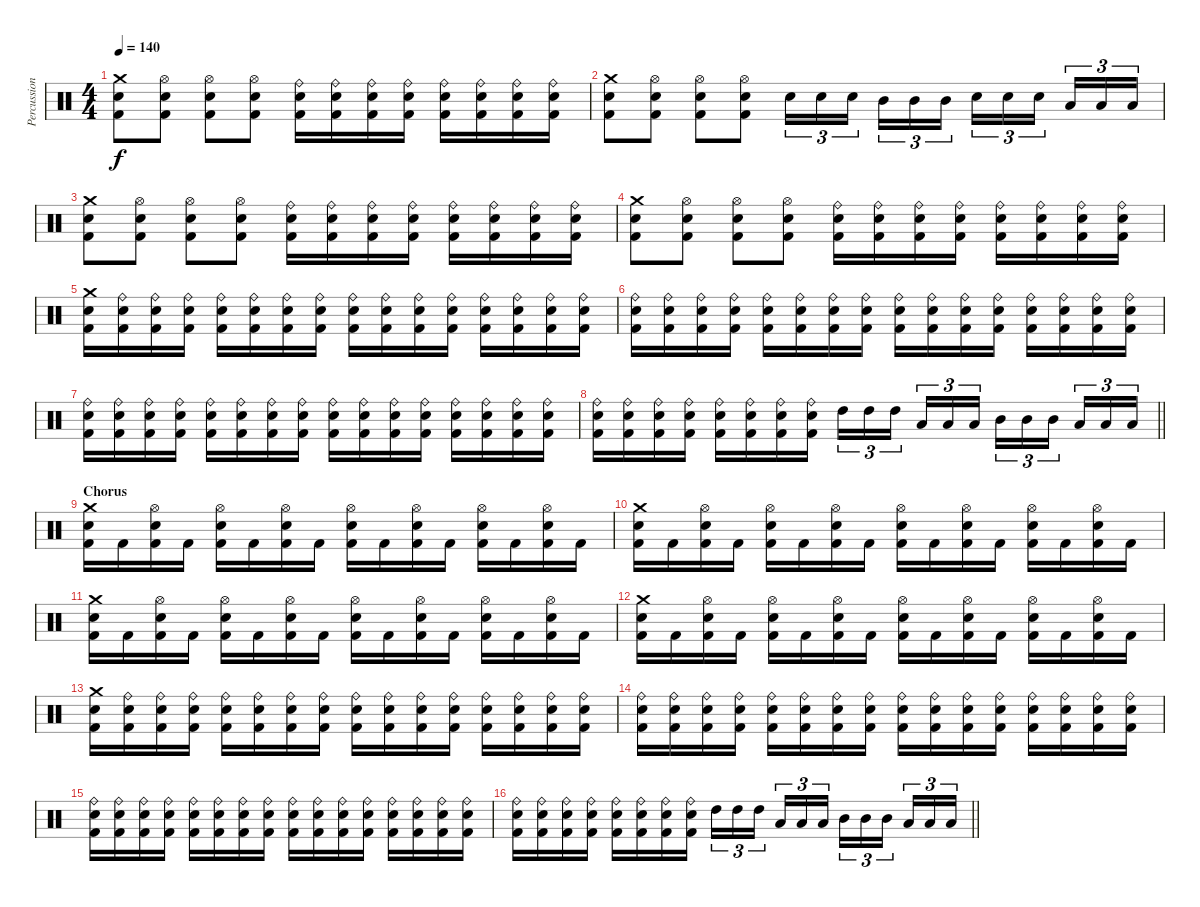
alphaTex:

\track ("Percussion" "Percussion") {instrument percussion}
\staff {score}
\articulation defaults
\ts (4 4)
\tempo 140
\clef neutral
\ks c
("Crash medium (hit)" "Electric Snare (hit)" "Kick (hit) 2").8{dy f} ("Hi-Hat (open)" "Electric Snare (hit)" "Kick (hit) 2").8 ("Hi-Hat (open)" "Electric Snare (hit)" "Kick (hit) 2").8 ("Hi-Hat (open)" "Electric Snare (hit)" "Kick (hit) 2").8 ("Ride (bell)" "Electric Snare (hit)" "Kick (hit) 2").16 ("Ride (bell)" "Electric Snare (hit)" "Kick (hit) 2").16 ("Ride (bell)" "Electric Snare (hit)" "Kick (hit) 2").16 ("Ride (bell)" "Electric Snare (hit)" "Kick (hit) 2").16 ("Ride (bell)" "Electric Snare (hit)" "Kick (hit) 2").16 ("Ride (bell)" "Electric Snare (hit)" "Kick (hit) 2").16 ("Ride (bell)" "Electric Snare (hit)" "Kick (hit) 2").16 ("Ride (bell)" "Electric Snare (hit)" "Kick (hit) 2").16 |
("Crash medium (hit)" "Electric Snare (hit)" "Kick (hit) 2").8 ("Hi-Hat (open)" "Electric Snare (hit)" "Kick (hit) 2").8 ("Hi-Hat (open)" "Electric Snare (hit)" "Kick (hit) 2").8 ("Hi-Hat (open)" "Electric Snare (hit)" "Kick (hit) 2").8 "Electric Snare (hit)".16{tu (3 2)} "Electric Snare (hit)".16{tu (3 2)} "Electric Snare (hit)".16{tu (3 2) beam splitsecondary} "Mid Tom (hit)".16{tu (3 2)} "Mid Tom (hit)".16{tu (3 2)} "Mid Tom (hit)".16{tu (3 2)} "Electric Snare (hit)".16{tu (3 2)} "Electric Snare (hit)".16{tu (3 2)} "Electric Snare (hit)".16{tu (3 2) beam splitsecondary} "Low Tom (hit)".16{tu (3 2)} "Low Tom (hit)".16{tu (3 2)} "Low Tom (hit)".16{tu (3 2)} |
("Crash medium (hit)" "Electric Snare (hit)" "Kick (hit) 2").8 ("Hi-Hat (open)" "Electric Snare (hit)" "Kick (hit) 2").8 ("Hi-Hat (open)" "Electric Snare (hit)" "Kick (hit) 2").8 ("Hi-Hat (open)" "Electric Snare (hit)" "Kick (hit) 2").8 ("Ride (bell)" "Electric Snare (hit)" "Kick (hit) 2").16 ("Ride (bell)" "Electric Snare (hit)" "Kick (hit) 2").16 ("Ride (bell)" "Electric Snare (hit)" "Kick (hit) 2").16 ("Ride (bell)" "Electric Snare (hit)" "Kick (hit) 2").16 ("Ride (bell)" "Electric Snare (hit)" "Kick (hit) 2").16 ("Ride (bell)" "Electric Snare (hit)" "Kick (hit) 2").16 ("Ride (bell)" "Electric Snare (hit)" "Kick (hit) 2").16 ("Ride (bell)" "Electric Snare (hit)" "Kick (hit) 2").16 |
("Crash medium (hit)" "Electric Snare (hit)" "Kick (hit) 2").8 ("Hi-Hat (open)" "Electric Snare (hit)" "Kick (hit) 2").8 ("Hi-Hat (open)" "Electric Snare (hit)" "Kick (hit) 2").8 ("Hi-Hat (open)" "Electric Snare (hit)" "Kick (hit) 2").8 ("Ride (bell)" "Electric Snare (hit)" "Kick (hit) 2").16 ("Ride (bell)" "Electric Snare (hit)" "Kick (hit) 2").16 ("Ride (bell)" "Electric Snare (hit)" "Kick (hit) 2").16 ("Ride (bell)" "Electric Snare (hit)" "Kick (hit) 2").16 ("Ride (bell)" "Electric Snare (hit)" "Kick (hit) 2").16 ("Ride (bell)" "Electric Snare (hit)" "Kick (hit) 2").16 ("Ride (bell)" "Electric Snare (hit)" "Kick (hit) 2").16 ("Ride (bell)" "Electric Snare (hit)" "Kick (hit) 2").16 |
("Crash medium (hit)" "Electric Snare (hit)" "Kick (hit) 2").16 ("Ride (bell)" "Electric Snare (hit)" "Kick (hit) 2").16 ("Ride (bell)" "Electric Snare (hit)" "Kick (hit) 2").16 ("Ride (bell)" "Electric Snare (hit)" "Kick (hit) 2").16 ("Ride (bell)" "Electric Snare (hit)" "Kick (hit) 2").16 ("Ride (bell)" "Electric Snare (hit)" "Kick (hit) 2").16 ("Ride (bell)" "Electric Snare (hit)" "Kick (hit) 2").16 ("Ride (bell)" "Electric Snare (hit)" "Kick (hit) 2").16 ("Ride (bell)" "Electric Snare (hit)" "Kick (hit) 2").16 ("Ride (bell)" "Electric Snare (hit)" "Kick (hit) 2").16 ("Ride (bell)" "Electric Snare (hit)" "Kick (hit) 2").16 ("Ride (bell)" "Electric Snare (hit)" "Kick (hit) 2").16 ("Ride (bell)" "Electric Snare (hit)" "Kick (hit) 2").16 ("Ride (bell)" "Electric Snare (hit)" "Kick (hit) 2").16 ("Ride (bell)" "Electric Snare (hit)" "Kick (hit) 2").16 ("Ride (bell)" "Electric Snare (hit)" "Kick (hit) 2").16 |
("Ride (bell)" "Electric Snare (hit)" "Kick (hit) 2").16 ("Ride (bell)" "Electric Snare (hit)" "Kick (hit) 2").16 ("Ride (bell)" "Electric Snare (hit)" "Kick (hit) 2").16 ("Ride (bell)" "Electric Snare (hit)" "Kick (hit) 2").16 ("Ride (bell)" "Electric Snare (hit)" "Kick (hit) 2").16 ("Ride (bell)" "Electric Snare (hit)" "Kick (hit) 2").16 ("Ride (bell)" "Electric Snare (hit)" "Kick (hit) 2").16 ("Ride (bell)" "Electric Snare (hit)" "Kick (hit) 2").16 ("Ride (bell)" "Electric Snare (hit)" "Kick (hit) 2").16 ("Ride (bell)" "Electric Snare (hit)" "Kick (hit) 2").16 ("Ride (bell)" "Electric Snare (hit)" "Kick (hit) 2").16 ("Ride (bell)" "Electric Snare (hit)" "Kick (hit) 2").16 ("Ride (bell)" "Electric Snare (hit)" "Kick (hit) 2").16 ("Ride (bell)" "Electric Snare (hit)" "Kick (hit) 2").16 ("Ride (bell)" "Electric Snare (hit)" "Kick (hit) 2").16 ("Ride (bell)" "Electric Snare (hit)" "Kick (hit) 2").16 |
("Ride (bell)" "Electric Snare (hit)" "Kick (hit) 2").16 ("Ride (bell)" "Electric Snare (hit)" "Kick (hit) 2").16 ("Ride (bell)" "Electric Snare (hit)" "Kick (hit) 2").16 ("Ride (bell)" "Electric Snare (hit)" "Kick (hit) 2").16 ("Ride (bell)" "Electric Snare (hit)" "Kick (hit) 2").16 ("Ride (bell)" "Electric Snare (hit)" "Kick (hit) 2").16 ("Ride (bell)" "Electric Snare (hit)" "Kick (hit) 2").16 ("Ride (bell)" "Electric Snare (hit)" "Kick (hit) 2").16 ("Ride (bell)" "Electric Snare (hit)" "Kick (hit) 2").16 ("Ride (bell)" "Electric Snare (hit)" "Kick (hit) 2").16 ("Ride (bell)" "Electric Snare (hit)" "Kick (hit) 2").16 ("Ride (bell)" "Electric Snare (hit)" "Kick (hit) 2").16 ("Ride (bell)" "Electric Snare (hit)" "Kick (hit) 2").16 ("Ride (bell)" "Electric Snare (hit)" "Kick (hit) 2").16 ("Ride (bell)" "Electric Snare (hit)" "Kick (hit) 2").16 ("Ride (bell)" "Electric Snare (hit)" "Kick (hit) 2").16 |
\barLineRight lightlight
("Ride (bell)" "Electric Snare (hit)" "Kick (hit) 2").16 ("Ride (bell)" "Electric Snare (hit)" "Kick (hit) 2").16 ("Ride (bell)" "Electric Snare (hit)" "Kick (hit) 2").16 ("Ride (bell)" "Electric Snare (hit)" "Kick (hit) 2").16 ("Ride (bell)" "Electric Snare (hit)" "Kick (hit) 2").16 ("Ride (bell)" "Electric Snare (hit)" "Kick (hit) 2").16 ("Ride (bell)" "Electric Snare (hit)" "Kick (hit) 2").16 ("Ride (bell)" "Electric Snare (hit)" "Kick (hit) 2").16 "High Tom (hit)".16{tu (3 2)} "High Tom (hit)".16{tu (3 2)} "High Tom (hit)".16{tu (3 2) beam splitsecondary} "Low Tom (hit)".16{tu (3 2)} "Low Tom (hit)".16{tu (3 2)} "Low Tom (hit)".16{tu (3 2)} "Mid Tom (hit)".16{tu (3 2)} "Mid Tom (hit)".16{tu (3 2)} "Mid Tom (hit)".16{tu (3 2) beam splitsecondary} "Low Floor Tom (hit)".16{tu (3 2)} "Low Floor Tom (hit)".16{tu (3 2)} "Low Floor Tom (hit)".16{tu (3 2)} |
\section ("" "Chorus")
("Crash medium (hit)" "Electric Snare (hit)" "Kick (hit) 2").16 "Kick (hit) 2".16 ("Hi-Hat (open)" "Electric Snare (hit)" "Kick (hit) 2").16 "Kick (hit) 2".16 ("Hi-Hat (open)" "Electric Snare (hit)" "Kick (hit) 2").16 "Kick (hit) 2".16 ("Hi-Hat (open)" "Electric Snare (hit)" "Kick (hit) 2").16 "Kick (hit) 2".16 ("Hi-Hat (open)" "Electric Snare (hit)" "Kick (hit) 2").16 "Kick (hit) 2".16 ("Hi-Hat (open)" "Electric Snare (hit)" "Kick (hit) 2").16 "Kick (hit) 2".16 ("Hi-Hat (open)" "Electric Snare (hit)" "Kick (hit) 2").16 "Kick (hit) 2".16 ("Hi-Hat (open)" "Electric Snare (hit)" "Kick (hit) 2").16 "Kick (hit) 2".16 |
("Crash medium (hit)" "Electric Snare (hit)" "Kick (hit) 2").16 "Kick (hit) 2".16 ("Hi-Hat (open)" "Electric Snare (hit)" "Kick (hit) 2").16 "Kick (hit) 2".16 ("Hi-Hat (open)" "Electric Snare (hit)" "Kick (hit) 2").16 "Kick (hit) 2".16 ("Hi-Hat (open)" "Electric Snare (hit)" "Kick (hit) 2").16 "Kick (hit) 2".16 ("Hi-Hat (open)" "Electric Snare (hit)" "Kick (hit) 2").16 "Kick (hit) 2".16 ("Hi-Hat (open)" "Electric Snare (hit)" "Kick (hit) 2").16 "Kick (hit) 2".16 ("Hi-Hat (open)" "Electric Snare (hit)" "Kick (hit) 2").16 "Kick (hit) 2".16 ("Hi-Hat (open)" "Electric Snare (hit)" "Kick (hit) 2").16 "Kick (hit) 2".16 |
("Crash medium (hit)" "Electric Snare (hit)" "Kick (hit) 2").16 "Kick (hit) 2".16 ("Hi-Hat (open)" "Electric Snare (hit)" "Kick (hit) 2").16 "Kick (hit) 2".16 ("Hi-Hat (open)" "Electric Snare (hit)" "Kick (hit) 2").16 "Kick (hit) 2".16 ("Hi-Hat (open)" "Electric Snare (hit)" "Kick (hit) 2").16 "Kick (hit) 2".16 ("Hi-Hat (open)" "Electric Snare (hit)" "Kick (hit) 2").16 "Kick (hit) 2".16 ("Hi-Hat (open)" "Electric Snare (hit)" "Kick (hit) 2").16 "Kick (hit) 2".16 ("Hi-Hat (open)" "Electric Snare (hit)" "Kick (hit) 2").16 "Kick (hit) 2".16 ("Hi-Hat (open)" "Electric Snare (hit)" "Kick (hit) 2").16 "Kick (hit) 2".16 |
("Crash medium (hit)" "Electric Snare (hit)" "Kick (hit) 2").16 "Kick (hit) 2".16 ("Hi-Hat (open)" "Electric Snare (hit)" "Kick (hit) 2").16 "Kick (hit) 2".16 ("Hi-Hat (open)" "Electric Snare (hit)" "Kick (hit) 2").16 "Kick (hit) 2".16 ("Hi-Hat (open)" "Electric Snare (hit)" "Kick (hit) 2").16 "Kick (hit) 2".16 ("Hi-Hat (open)" "Electric Snare (hit)" "Kick (hit) 2").16 "Kick (hit) 2".16 ("Hi-Hat (open)" "Electric Snare (hit)" "Kick (hit) 2").16 "Kick (hit) 2".16 ("Hi-Hat (open)" "Electric Snare (hit)" "Kick (hit) 2").16 "Kick (hit) 2".16 ("Hi-Hat (open)" "Electric Snare (hit)" "Kick (hit) 2").16 "Kick (hit) 2".16 |
("Crash medium (hit)" "Electric Snare (hit)" "Kick (hit) 2").16 ("Ride (bell)" "Electric Snare (hit)" "Kick (hit) 2").16 ("Ride (bell)" "Electric Snare (hit)" "Kick (hit) 2").16 ("Ride (bell)" "Electric Snare (hit)" "Kick (hit) 2").16 ("Ride (bell)" "Electric Snare (hit)" "Kick (hit) 2").16 ("Ride (bell)" "Electric Snare (hit)" "Kick (hit) 2").16 ("Ride (bell)" "Electric Snare (hit)" "Kick (hit) 2").16 ("Ride (bell)" "Electric Snare (hit)" "Kick (hit) 2").16 ("Ride (bell)" "Electric Snare (hit)" "Kick (hit) 2").16 ("Ride (bell)" "Electric Snare (hit)" "Kick (hit) 2").16 ("Ride (bell)" "Electric Snare (hit)" "Kick (hit) 2").16 ("Ride (bell)" "Electric Snare (hit)" "Kick (hit) 2").16 ("Ride (bell)" "Electric Snare (hit)" "Kick (hit) 2").16 ("Ride (bell)" "Electric Snare (hit)" "Kick (hit) 2").16 ("Ride (bell)" "Electric Snare (hit)" "Kick (hit) 2").16 ("Ride (bell)" "Electric Snare (hit)" "Kick (hit) 2").16 |
("Ride (bell)" "Electric Snare (hit)" "Kick (hit) 2").16 ("Ride (bell)" "Electric Snare (hit)" "Kick (hit) 2").16 ("Ride (bell)" "Electric Snare (hit)" "Kick (hit) 2").16 ("Ride (bell)" "Electric Snare (hit)" "Kick (hit) 2").16 ("Ride (bell)" "Electric Snare (hit)" "Kick (hit) 2").16 ("Ride (bell)" "Electric Snare (hit)" "Kick (hit) 2").16 ("Ride (bell)" "Electric Snare (hit)" "Kick (hit) 2").16 ("Ride (bell)" "Electric Snare (hit)" "Kick (hit) 2").16 ("Ride (bell)" "Electric Snare (hit)" "Kick (hit) 2").16 ("Ride (bell)" "Electric Snare (hit)" "Kick (hit) 2").16 ("Ride (bell)" "Electric Snare (hit)" "Kick (hit) 2").16 ("Ride (bell)" "Electric Snare (hit)" "Kick (hit) 2").16 ("Ride (bell)" "Electric Snare (hit)" "Kick (hit) 2").16 ("Ride (bell)" "Electric Snare (hit)" "Kick (hit) 2").16 ("Ride (bell)" "Electric Snare (hit)" "Kick (hit) 2").16 ("Ride (bell)" "Electric Snare (hit)" "Kick (hit) 2").16 |
("Ride (bell)" "Electric Snare (hit)" "Kick (hit) 2").16 ("Ride (bell)" "Electric Snare (hit)" "Kick (hit) 2").16 ("Ride (bell)" "Electric Snare (hit)" "Kick (hit) 2").16 ("Ride (bell)" "Electric Snare (hit)" "Kick (hit) 2").16 ("Ride (bell)" "Electric Snare (hit)" "Kick (hit) 2").16 ("Ride (bell)" "Electric Snare (hit)" "Kick (hit) 2").16 ("Ride (bell)" "Electric Snare (hit)" "Kick (hit) 2").16 ("Ride (bell)" "Electric Snare (hit)" "Kick (hit) 2").16 ("Ride (bell)" "Electric Snare (hit)" "Kick (hit) 2").16 ("Ride (bell)" "Electric Snare (hit)" "Kick (hit) 2").16 ("Ride (bell)" "Electric Snare (hit)" "Kick (hit) 2").16 ("Ride (bell)" "Electric Snare (hit)" "Kick (hit) 2").16 ("Ride (bell)" "Electric Snare (hit)" "Kick (hit) 2").16 ("Ride (bell)" "Electric Snare (hit)" "Kick (hit) 2").16 ("Ride (bell)" "Electric Snare (hit)" "Kick (hit) 2").16 ("Ride (bell)" "Electric Snare (hit)" "Kick (hit) 2").16 |
\barLineRight lightlight
("Ride (bell)" "Electric Snare (hit)" "Kick (hit) 2").16 ("Ride (bell)" "Electric Snare (hit)" "Kick (hit) 2").16 ("Ride (bell)" "Electric Snare (hit)" "Kick (hit) 2").16 ("Ride (bell)" "Electric Snare (hit)" "Kick (hit) 2").16 ("Ride (bell)" "Electric Snare (hit)" "Kick (hit) 2").16 ("Ride (bell)" "Electric Snare (hit)" "Kick (hit) 2").16 ("Ride (bell)" "Electric Snare (hit)" "Kick (hit) 2").16 ("Ride (bell)" "Electric Snare (hit)" "Kick (hit) 2").16 "High Tom (hit)".16{tu (3 2)} "High Tom (hit)".16{tu (3 2)} "High Tom (hit)".16{tu (3 2) beam splitsecondary} "Low Tom (hit)".16{tu (3 2)} "Low Tom (hit)".16{tu (3 2)} "Low Tom (hit)".16{tu (3 2)} "Mid Tom (hit)".16{tu (3 2)} "Mid Tom (hit)".16{tu (3 2)} "Mid Tom (hit)".16{tu (3 2) beam splitsecondary} "Low Floor Tom (hit)".16{tu (3 2)} "Low Floor Tom (hit)".16{tu (3 2)} "Low Floor Tom (hit)".16{tu (3 2)}
